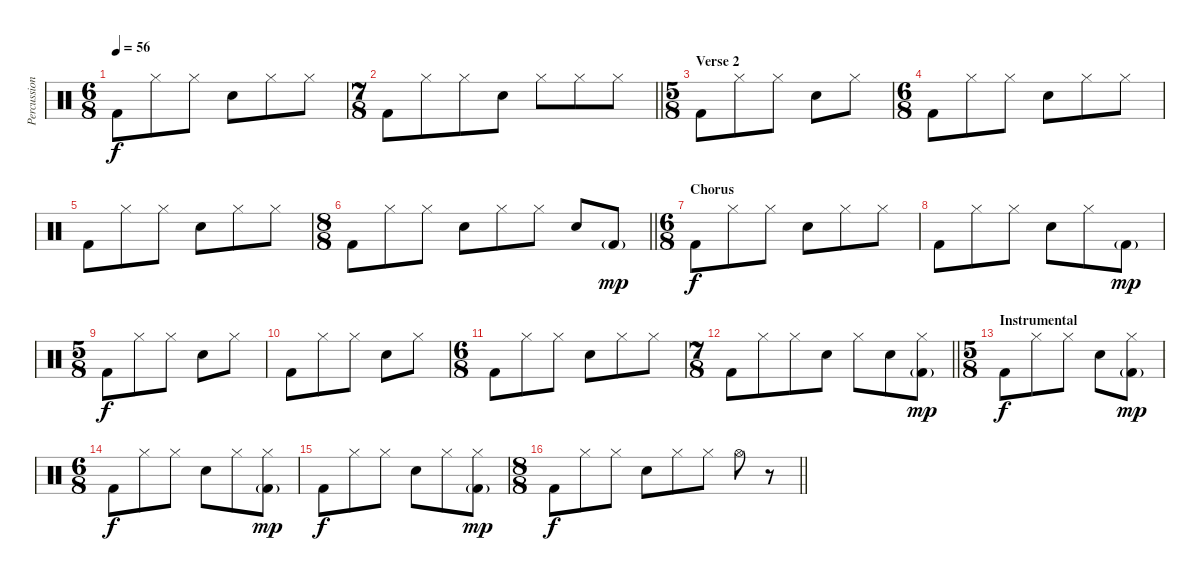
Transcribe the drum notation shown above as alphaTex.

\track ("Percussion" "Percussion") {instrument percussion}
\staff {score}
\articulation defaults
\ts (6 8)
\tempo 56
\clef neutral
\ks c "Kick (hit) 2".8{dy f} "Hi-Hat (closed)".8 "Hi-Hat (closed)".8 "Snare (hit) 2".8 "Hi-Hat (closed)".8 "Hi-Hat (closed)".8
|
\ts (7 8)
\barLineRight lightlight "Kick (hit) 2".8 "Hi-Hat (closed)".8 "Hi-Hat (closed)".8 "Snare (hit) 2".8 "Hi-Hat (closed)".8 "Hi-Hat (closed)".8 "Hi-Hat (closed)".8
|
\ts (5 8)
\section ("" "Verse 2")
"Kick (hit) 2".8 "Hi-Hat (closed)".8 "Hi-Hat (closed)".8 "Snare (hit) 2".8 "Hi-Hat (closed)".8 |
\ts (6 8)
"Kick (hit) 2".8 "Hi-Hat (closed)".8 "Hi-Hat (closed)".8 "Snare (hit) 2".8 "Hi-Hat (closed)".8 "Hi-Hat (closed)".8 |
"Kick (hit) 2".8 "Hi-Hat (closed)".8 "Hi-Hat (closed)".8 "Snare (hit) 2".8 "Hi-Hat (closed)".8 "Hi-Hat (closed)".8 |
\ts (8 8)
\barLineRight lightlight "Kick (hit) 2".8 "Hi-Hat (closed)".8 "Hi-Hat (closed)".8 "Snare (hit) 2".8 "Hi-Hat (closed)".8 "Hi-Hat (closed)".8 "Snare (hit) 2".8 "Kick (hit) 2"{g}.8{dy mp}
|
\ts (6 8)
\section ("" "Chorus")
"Kick (hit) 2".8{dy f} "Hi-Hat (closed)".8 "Hi-Hat (closed)".8 "Snare (hit) 2".8 "Hi-Hat (closed)".8 "Hi-Hat (closed)".8 |
"Kick (hit) 2".8 "Hi-Hat (closed)".8 "Hi-Hat (closed)".8 "Snare (hit) 2".8 "Hi-Hat (closed)".8 "Kick (hit) 2"{g}.8{dy mp} |
\ts (5 8)
"Kick (hit) 2".8{dy f} "Hi-Hat (closed)".8 "Hi-Hat (closed)".8 "Snare (hit) 2".8 "Hi-Hat (closed)".8 |
"Kick (hit) 2".8 "Hi-Hat (closed)".8 "Hi-Hat (closed)".8 "Snare (hit) 2".8 "Hi-Hat (closed)".8 |
\ts (6 8)
"Kick (hit) 2".8 "Hi-Hat (closed)".8 "Hi-Hat (closed)".8 "Snare (hit) 2".8 "Hi-Hat (closed)".8 "Hi-Hat (closed)".8 |
\ts (7 8)
\barLineRight lightlight "Kick (hit) 2".8 "Hi-Hat (closed)".8 "Hi-Hat (closed)".8 "Snare (hit) 2".8 "Hi-Hat (closed)".8 "Snare (hit) 2".8
("Hi-Hat (closed)" "Kick (hit) 2"{g}).8{dy mp} |
\ts (5 8)
\section ("" "Instrumental")
"Kick (hit) 2".8{dy f} "Hi-Hat (closed)".8 "Hi-Hat (closed)".8 "Snare (hit) 2".8 ("Hi-Hat (closed)" "Kick (hit) 2"{g}).8{dy mp} |
\ts (6 8)
"Kick (hit) 2".8{dy f} "Hi-Hat (closed)".8 "Hi-Hat (closed)".8 "Snare (hit) 2".8 "Hi-Hat (closed)".8 ("Hi-Hat (closed)" "Kick (hit) 2"{g}).8{dy mp} |
"Kick (hit) 2".8{dy f} "Hi-Hat (closed)".8 "Hi-Hat (closed)".8 "Snare (hit) 2".8 "Hi-Hat (closed)".8 ("Hi-Hat (closed)" "Kick (hit) 2"{g}).8{dy mp} |
\ts (8 8)
\barLineRight lightlight "Kick (hit) 2".8{dy f} "Hi-Hat (closed)".8 "Hi-Hat (closed)".8 "Snare (hit) 2".8 "Hi-Hat (closed)".8 "Hi-Hat (closed)".8 "Hi-Hat (open)".8
r.8
